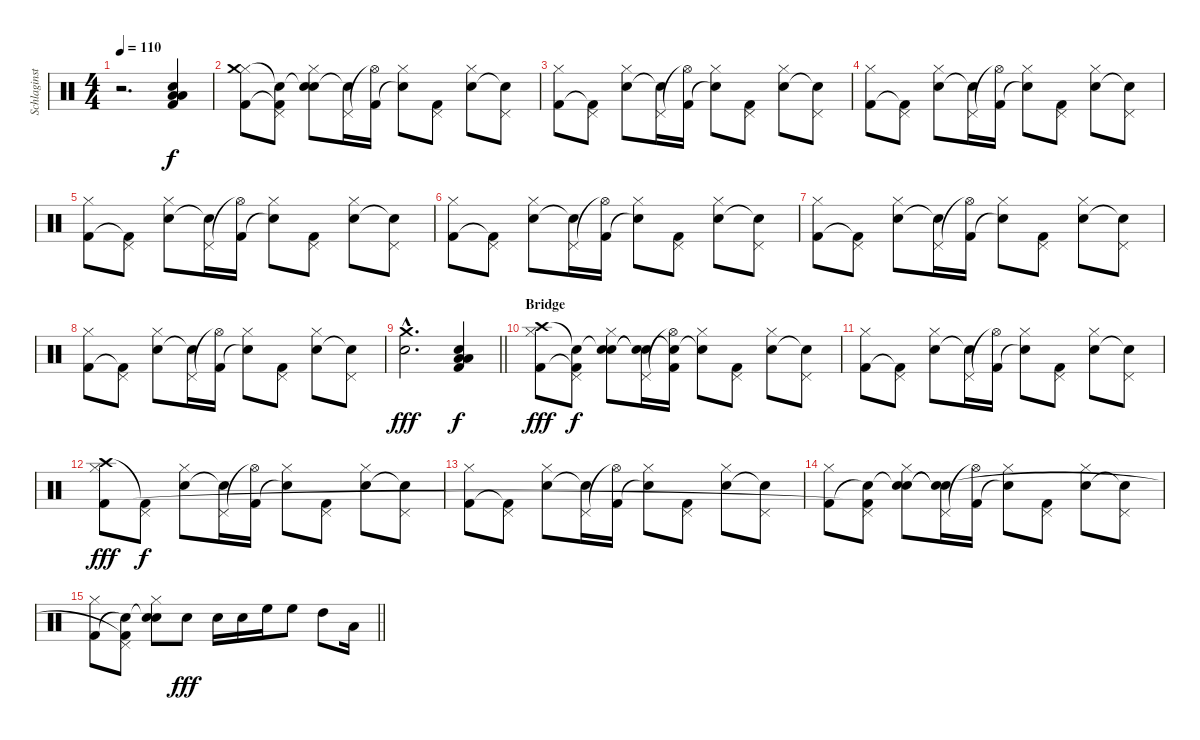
\track ("Schlaginstrumente - Auswahl" "Schlaginst") {instrument percussion}
\staff {score}
\articulation defaults
\ts (4 4)
\tempo 110
\clef neutral
\ks c
r.2{d dy fff} ("Low Floor Tom (hit)" "Low Tom (hit)" "Snare (hit) 2" "Kick (hit) 2").4{dy f} |
("Hi-Hat (closed)" "Crash medium (hit)" "Kick (hit) 2").8 ("Pedal Hi-Hat (hit)" "Snare (hit)"{t} "Kick (hit) 2"{t}).8 ("Hi-Hat (closed)" "Snare (hit)"{t} "Snare (hit) 2").8 ("Pedal Hi-Hat (hit)" "Snare (hit) 2"{t}).16 ("Hi-Hat (open)"{t} "Kick (hit) 2").16 ("Hi-Hat (closed)" "Snare (hit)"{t}).8 ("Pedal Hi-Hat (hit)" "Kick (hit) 2").8 ("Hi-Hat (closed)" "Snare (hit) 2").8 ("Pedal Hi-Hat (hit)" "Snare (hit) 2"{t}).8 |
("Hi-Hat (closed)" "Kick (hit) 2").8 ("Pedal Hi-Hat (hit)" "Kick (hit) 2"{t}).8 ("Hi-Hat (closed)" "Snare (hit) 2").8 ("Pedal Hi-Hat (hit)" "Snare (hit) 2"{t}).16 ("Hi-Hat (open)"{t} "Kick (hit) 2").16 ("Hi-Hat (closed)" "Snare (hit)"{t}).8 ("Pedal Hi-Hat (hit)" "Kick (hit) 2").8 ("Hi-Hat (closed)" "Snare (hit) 2").8 ("Pedal Hi-Hat (hit)" "Snare (hit) 2"{t}).8 |
("Hi-Hat (closed)" "Kick (hit) 2").8 ("Pedal Hi-Hat (hit)" "Kick (hit) 2"{t}).8 ("Hi-Hat (closed)" "Snare (hit) 2").8 ("Pedal Hi-Hat (hit)" "Snare (hit) 2"{t}).16 ("Hi-Hat (open)"{t} "Kick (hit) 2").16 ("Hi-Hat (closed)" "Snare (hit)"{t}).8 ("Pedal Hi-Hat (hit)" "Kick (hit) 2").8 ("Hi-Hat (closed)" "Snare (hit) 2").8 ("Pedal Hi-Hat (hit)" "Snare (hit) 2"{t}).8 |
("Hi-Hat (closed)" "Kick (hit) 2").8 ("Pedal Hi-Hat (hit)" "Kick (hit) 2"{t}).8 ("Hi-Hat (closed)" "Snare (hit) 2").8 ("Pedal Hi-Hat (hit)" "Snare (hit) 2"{t}).16 ("Hi-Hat (open)"{t} "Kick (hit) 2").16 ("Hi-Hat (closed)" "Snare (hit)"{t}).8 ("Pedal Hi-Hat (hit)" "Kick (hit) 2").8 ("Hi-Hat (closed)" "Snare (hit) 2").8 ("Pedal Hi-Hat (hit)" "Snare (hit) 2"{t}).8 |
("Hi-Hat (closed)" "Kick (hit) 2").8 ("Pedal Hi-Hat (hit)" "Kick (hit) 2"{t}).8 ("Hi-Hat (closed)" "Snare (hit) 2").8 ("Pedal Hi-Hat (hit)" "Snare (hit) 2"{t}).16 ("Hi-Hat (open)"{t} "Kick (hit) 2").16 ("Hi-Hat (closed)" "Snare (hit)"{t}).8 ("Pedal Hi-Hat (hit)" "Kick (hit) 2").8 ("Hi-Hat (closed)" "Snare (hit) 2").8 ("Pedal Hi-Hat (hit)" "Snare (hit) 2"{t}).8 |
("Hi-Hat (closed)" "Kick (hit) 2").8 ("Pedal Hi-Hat (hit)" "Kick (hit) 2"{t}).8 ("Hi-Hat (closed)" "Snare (hit) 2").8 ("Pedal Hi-Hat (hit)" "Snare (hit) 2"{t}).16 ("Hi-Hat (open)"{t} "Kick (hit) 2").16 ("Hi-Hat (closed)" "Snare (hit)"{t}).8 ("Pedal Hi-Hat (hit)" "Kick (hit) 2").8 ("Hi-Hat (closed)" "Snare (hit) 2").8 ("Pedal Hi-Hat (hit)" "Snare (hit) 2"{t}).8 |
("Hi-Hat (closed)" "Kick (hit) 2").8 ("Pedal Hi-Hat (hit)" "Kick (hit) 2"{t}).8 ("Hi-Hat (closed)" "Snare (hit) 2").8 ("Pedal Hi-Hat (hit)" "Snare (hit) 2"{t}).16 ("Hi-Hat (open)"{t} "Kick (hit) 2").16 ("Hi-Hat (closed)" "Snare (hit)"{t}).8 ("Pedal Hi-Hat (hit)" "Kick (hit) 2").8 ("Hi-Hat (closed)" "Snare (hit) 2").8 ("Pedal Hi-Hat (hit)" "Snare (hit) 2"{t}).8 |
\barLineRight lightlight
("Crash medium (hit)"{hac} "Snare (hit) 2"{hac}).2{d dy fff} ("Low Floor Tom (hit)" "Low Tom (hit)" "Snare (hit) 2" "Kick (hit) 2").4{dy f} |
\section ("" "Bridge")
("Hi-Hat (closed)" "Crash high (hit)" "Kick (hit) 2").8{dy fff} ("Pedal Hi-Hat (hit)" "Snare (hit)"{t} "Kick (hit) 2"{t}).8{dy f} ("Hi-Hat (closed)" "Snare (hit)"{t} "Snare (hit) 2").8 ("Pedal Hi-Hat (hit)" "Snare (hit)"{t} "Snare (hit) 2"{t}).16 ("Hi-Hat (open)"{t} "Snare (hit)"{t} "Kick (hit) 2").16 ("Hi-Hat (closed)" "Snare (hit)"{t}).8 ("Pedal Hi-Hat (hit)" "Kick (hit) 2").8 ("Hi-Hat (closed)" "Snare (hit) 2").8 ("Pedal Hi-Hat (hit)" "Snare (hit) 2"{t}).8 |
("Hi-Hat (closed)" "Kick (hit) 2").8 ("Pedal Hi-Hat (hit)" "Kick (hit) 2"{t}).8 ("Hi-Hat (closed)" "Snare (hit) 2").8 ("Pedal Hi-Hat (hit)" "Snare (hit) 2"{t}).16 ("Hi-Hat (open)"{t} "Kick (hit) 2").16 ("Hi-Hat (closed)" "Snare (hit)"{t}).8 ("Pedal Hi-Hat (hit)" "Kick (hit) 2").8 ("Hi-Hat (closed)" "Snare (hit) 2").8 ("Pedal Hi-Hat (hit)" "Snare (hit) 2"{t}).8 |
("Hi-Hat (closed)" "Crash high (hit)" "Kick (hit) 2").8{dy fff} ("Pedal Hi-Hat (hit)" "Kick (hit) 2"{t}).8{dy f} ("Hi-Hat (closed)" "Snare (hit) 2").8 ("Pedal Hi-Hat (hit)" "Snare (hit) 2"{t}).16 ("Hi-Hat (open)"{t} "Kick (hit) 2").16 ("Hi-Hat (closed)" "Snare (hit)"{t}).8 ("Pedal Hi-Hat (hit)" "Kick (hit) 2").8 ("Hi-Hat (closed)" "Snare (hit) 2").8 ("Pedal Hi-Hat (hit)" "Snare (hit) 2"{t}).8 |
("Hi-Hat (closed)" "Kick (hit) 2").8 ("Pedal Hi-Hat (hit)" "Kick (hit) 2"{t}).8 ("Hi-Hat (closed)" "Snare (hit) 2").8 ("Pedal Hi-Hat (hit)" "Snare (hit) 2"{t}).16 ("Hi-Hat (open)"{t} "Kick (hit) 2").16 ("Hi-Hat (closed)" "Snare (hit)"{t}).8 ("Pedal Hi-Hat (hit)" "Kick (hit) 2").8 ("Hi-Hat (closed)" "Snare (hit) 2").8 ("Pedal Hi-Hat (hit)" "Snare (hit) 2"{t}).8 |
("Hi-Hat (closed)" "Kick (hit) 2").8 ("Pedal Hi-Hat (hit)" "Snare (hit)"{t} "Kick (hit) 2"{t}).8 ("Hi-Hat (closed)" "Snare (hit)"{t} "Snare (hit) 2").8 ("Pedal Hi-Hat (hit)" "Snare (hit)"{t} "Snare (hit) 2"{t}).16 ("Hi-Hat (open)"{t} "Kick (hit) 2").16 ("Hi-Hat (closed)" "Snare (hit)"{t}).8 ("Pedal Hi-Hat (hit)" "Kick (hit) 2").8 ("Hi-Hat (closed)" "Snare (hit) 2").8 ("Pedal Hi-Hat (hit)" "Snare (hit) 2"{t}).8 |
\barLineRight lightlight
("Hi-Hat (closed)" "Kick (hit) 2").8 ("Pedal Hi-Hat (hit)" "Snare (hit)"{t} "Kick (hit) 2"{t}).8 ("Hi-Hat (closed)" "Snare (hit)"{t} "Snare (hit) 2").8 "Snare (hit) 2".8{dy fff} "Snare (hit) 2".16 "Snare (hit) 2".16 "High Floor Tom (hit)".16 "High Floor Tom (hit)".8 "High Tom (hit)".8 "Low Tom (hit)".16
